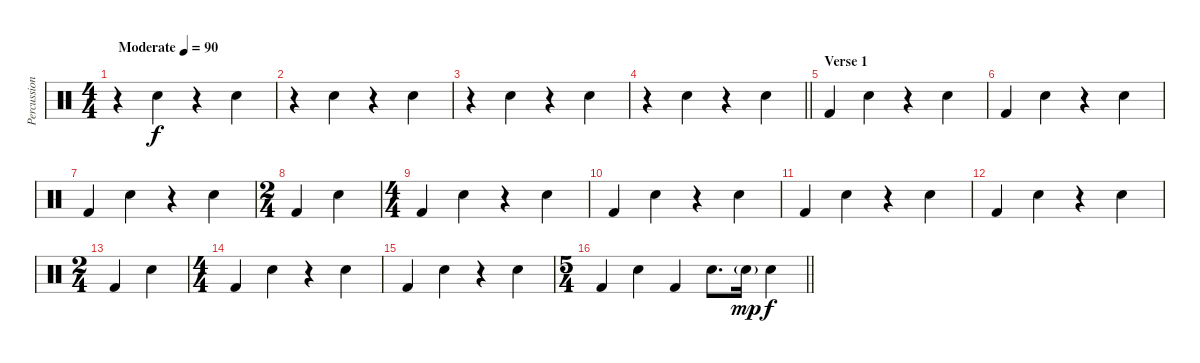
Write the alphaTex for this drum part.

\track ("Percussion" "Percussion") {instrument percussion}
\staff {score}
\articulation defaults
\ts (4 4)
\tempo (90 "Moderate")
\clef neutral
\ks c
r.4{dy f} "Snare (hit) 2".4 r.4 "Snare (hit) 2".4 |
r.4 "Snare (hit) 2".4 r.4 "Snare (hit) 2".4 |
r.4 "Snare (hit) 2".4 r.4 "Snare (hit) 2".4 |
\barLineRight lightlight
r.4 "Snare (hit) 2".4 r.4 "Snare (hit) 2".4 |
\section ("" "Verse 1")
"Kick (hit) 2".4 "Snare (hit) 2".4 r.4 "Snare (hit) 2".4 |
"Kick (hit) 2".4 "Snare (hit) 2".4 r.4 "Snare (hit) 2".4 |
"Kick (hit) 2".4 "Snare (hit) 2".4 r.4 "Snare (hit) 2".4 |
\ts (2 4)
"Kick (hit) 2".4 "Snare (hit) 2".4 |
\ts (4 4)
"Kick (hit) 2".4 "Snare (hit) 2".4 r.4 "Snare (hit) 2".4 |
"Kick (hit) 2".4 "Snare (hit) 2".4 r.4 "Snare (hit) 2".4 |
"Kick (hit) 2".4 "Snare (hit) 2".4 r.4 "Snare (hit) 2".4 |
"Kick (hit) 2".4 "Snare (hit) 2".4 r.4 "Snare (hit) 2".4 |
\ts (2 4)
"Kick (hit) 2".4 "Snare (hit) 2".4 |
\ts (4 4)
"Kick (hit) 2".4 "Snare (hit) 2".4 r.4 "Snare (hit) 2".4 |
"Kick (hit) 2".4 "Snare (hit) 2".4 r.4 "Snare (hit) 2".4 |
\ts (5 4)
\barLineRight lightlight "Kick (hit) 2".4 "Snare (hit) 2".4 "Kick (hit) 2".4 "Snare (hit) 2".8{d} "Snare (hit) 2"{g}.16{dy mp} "Snare (hit) 2".4{dy f}
